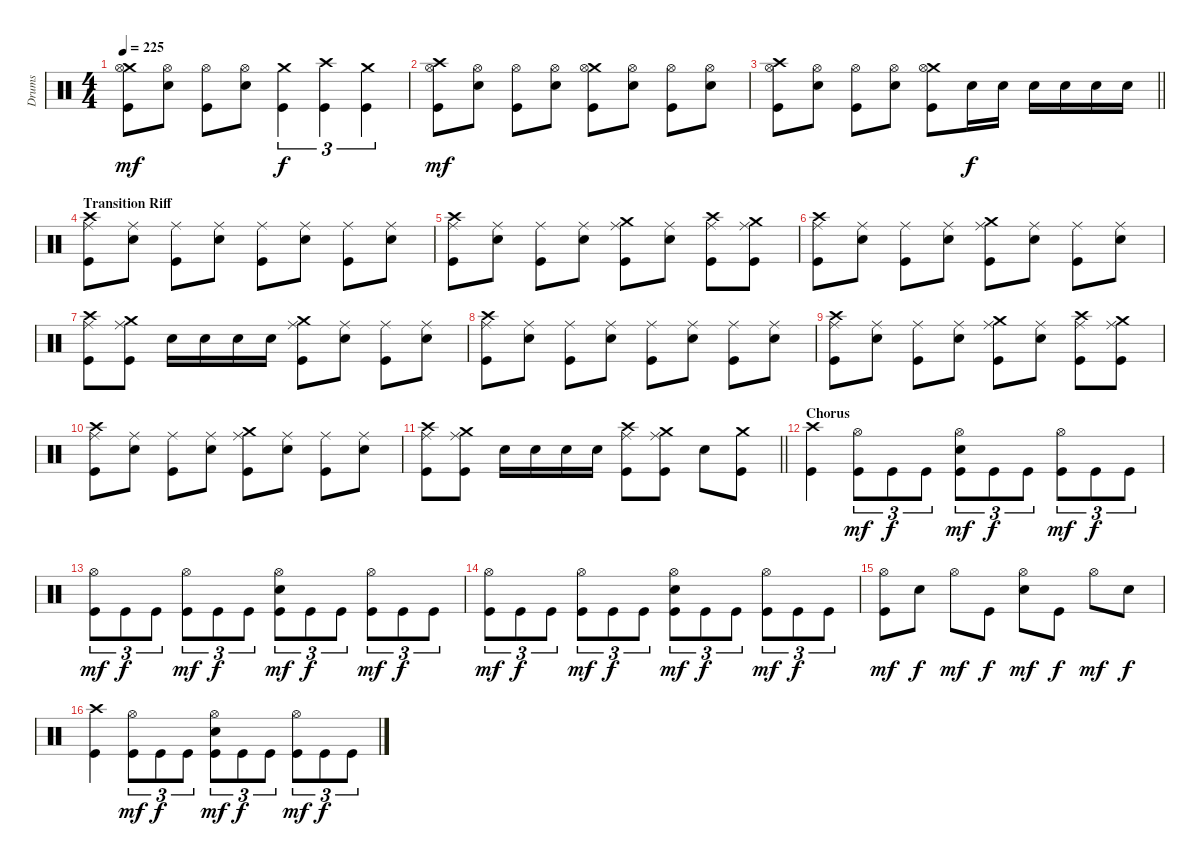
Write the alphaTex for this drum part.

\track ("Drums" "Drums") {instrument percussion}
\staff {score}
\articulation defaults
\ts (4 4)
\tempo 225
\clef neutral
\ks c
("Crash medium (hit)" "Hi-Hat (open)" "Kick (hit)").8{dy mf} ("Hi-Hat (open)" "Electric Snare (hit)").8 ("Hi-Hat (open)" "Kick (hit)").8 ("Hi-Hat (open)" "Electric Snare (hit)").8 ("Crash medium (hit)" "Kick (hit)").4{tu (3 2) dy f} ("Crash high (hit)" "Kick (hit)").4{tu (3 2)} ("Crash medium (hit)" "Kick (hit)").4{tu (3 2)} |
("Crash high (hit)" "Hi-Hat (open)" "Kick (hit)").8{dy mf} ("Hi-Hat (open)" "Electric Snare (hit)").8 ("Hi-Hat (open)" "Kick (hit)").8 ("Hi-Hat (open)" "Electric Snare (hit)").8 ("Crash medium (hit)" "Hi-Hat (open)" "Kick (hit)").8 ("Hi-Hat (open)" "Electric Snare (hit)").8 ("Hi-Hat (open)" "Kick (hit)").8 ("Hi-Hat (open)" "Electric Snare (hit)").8 |
\barLineRight lightlight
("Crash high (hit)" "Hi-Hat (open)" "Kick (hit)").8 ("Hi-Hat (open)" "Electric Snare (hit)").8 ("Hi-Hat (open)" "Kick (hit)").8 ("Hi-Hat (open)" "Electric Snare (hit)").8 ("Crash medium (hit)" "Hi-Hat (open)" "Kick (hit)").8 "Electric Snare (hit)".16{dy f} "Electric Snare (hit)".16 "Electric Snare (hit)".16 "Electric Snare (hit)".16 "Electric Snare (hit)".16 "Electric Snare (hit)".16 |
\section ("" "Transition Riff")
("Crash high (hit)" "Ride (middle)" "Kick (hit)").8 ("Ride (middle)" "Electric Snare (hit)").8 ("Ride (middle)" "Kick (hit)").8 ("Ride (middle)" "Electric Snare (hit)").8 ("Ride (middle)" "Kick (hit)").8 ("Ride (middle)" "Electric Snare (hit)").8 ("Ride (middle)" "Kick (hit)").8 ("Ride (middle)" "Electric Snare (hit)").8 |
("Crash high (hit)" "Ride (middle)" "Kick (hit)").8 ("Ride (middle)" "Electric Snare (hit)").8 ("Ride (middle)" "Kick (hit)").8 ("Ride (middle)" "Electric Snare (hit)").8 ("Crash medium (hit)" "Ride (middle)" "Kick (hit)").8 ("Ride (middle)" "Electric Snare (hit)").8 ("Crash high (hit)" "Ride (middle)" "Kick (hit)").8 ("Crash medium (hit)" "Ride (middle)" "Kick (hit)").8 |
("Crash high (hit)" "Ride (middle)" "Kick (hit)").8 ("Ride (middle)" "Electric Snare (hit)").8 ("Ride (middle)" "Kick (hit)").8 ("Ride (middle)" "Electric Snare (hit)").8 ("Crash medium (hit)" "Ride (middle)" "Kick (hit)").8 ("Ride (middle)" "Electric Snare (hit)").8 ("Ride (middle)" "Kick (hit)").8 ("Ride (middle)" "Electric Snare (hit)").8 |
("Crash high (hit)" "Ride (middle)" "Kick (hit)").8 ("Crash medium (hit)" "Ride (middle)" "Kick (hit)").8 "Electric Snare (hit)".16 "Electric Snare (hit)".16 "Electric Snare (hit)".16 "Electric Snare (hit)".16 ("Crash medium (hit)" "Ride (middle)" "Kick (hit)").8 ("Ride (middle)" "Electric Snare (hit)").8 ("Ride (middle)" "Kick (hit)").8 ("Ride (middle)" "Electric Snare (hit)").8 |
("Crash high (hit)" "Ride (middle)" "Kick (hit)").8 ("Ride (middle)" "Electric Snare (hit)").8 ("Ride (middle)" "Kick (hit)").8 ("Ride (middle)" "Electric Snare (hit)").8 ("Ride (middle)" "Kick (hit)").8 ("Ride (middle)" "Electric Snare (hit)").8 ("Ride (middle)" "Kick (hit)").8 ("Ride (middle)" "Electric Snare (hit)").8 |
("Crash high (hit)" "Ride (middle)" "Kick (hit)").8 ("Ride (middle)" "Electric Snare (hit)").8 ("Ride (middle)" "Kick (hit)").8 ("Ride (middle)" "Electric Snare (hit)").8 ("Crash medium (hit)" "Ride (middle)" "Kick (hit)").8 ("Ride (middle)" "Electric Snare (hit)").8 ("Crash high (hit)" "Ride (middle)" "Kick (hit)").8 ("Crash medium (hit)" "Ride (middle)" "Kick (hit)").8 |
("Crash high (hit)" "Ride (middle)" "Kick (hit)").8 ("Ride (middle)" "Electric Snare (hit)").8 ("Ride (middle)" "Kick (hit)").8 ("Ride (middle)" "Electric Snare (hit)").8 ("Crash medium (hit)" "Ride (middle)" "Kick (hit)").8 ("Ride (middle)" "Electric Snare (hit)").8 ("Ride (middle)" "Kick (hit)").8 ("Ride (middle)" "Electric Snare (hit)").8 |
\barLineRight lightlight
("Crash high (hit)" "Ride (middle)" "Kick (hit)").8 ("Crash medium (hit)" "Ride (middle)" "Kick (hit)").8 "Electric Snare (hit)".16 "Electric Snare (hit)".16 "Electric Snare (hit)".16 "Electric Snare (hit)".16 ("Crash high (hit)" "Ride (middle)" "Kick (hit)").8 ("Crash medium (hit)" "Ride (middle)" "Kick (hit)").8 "Electric Snare (hit)".8 ("Crash medium (hit)" "Kick (hit)").8 |
\section ("" "Chorus")
("Crash high (hit)" "Kick (hit)").4 ("Hi-Hat (open)" "Kick (hit)").8{tu (3 2) dy mf} "Kick (hit)".8{tu (3 2) dy f} "Kick (hit)".8{tu (3 2)} ("Hi-Hat (open)" "Electric Snare (hit)" "Kick (hit)").8{tu (3 2) dy mf} "Kick (hit)".8{tu (3 2) dy f} "Kick (hit)".8{tu (3 2)} ("Hi-Hat (open)" "Kick (hit)").8{tu (3 2) dy mf} "Kick (hit)".8{tu (3 2) dy f} "Kick (hit)".8{tu (3 2)} |
("Hi-Hat (open)" "Kick (hit)").8{tu (3 2) dy mf} "Kick (hit)".8{tu (3 2) dy f} "Kick (hit)".8{tu (3 2)} ("Hi-Hat (open)" "Kick (hit)").8{tu (3 2) dy mf} "Kick (hit)".8{tu (3 2) dy f} "Kick (hit)".8{tu (3 2)} ("Hi-Hat (open)" "Electric Snare (hit)" "Kick (hit)").8{tu (3 2) dy mf} "Kick (hit)".8{tu (3 2) dy f} "Kick (hit)".8{tu (3 2)} ("Hi-Hat (open)" "Kick (hit)").8{tu (3 2) dy mf} "Kick (hit)".8{tu (3 2) dy f} "Kick (hit)".8{tu (3 2)} |
("Hi-Hat (open)" "Kick (hit)").8{tu (3 2) dy mf} "Kick (hit)".8{tu (3 2) dy f} "Kick (hit)".8{tu (3 2)} ("Hi-Hat (open)" "Kick (hit)").8{tu (3 2) dy mf} "Kick (hit)".8{tu (3 2) dy f} "Kick (hit)".8{tu (3 2)} ("Hi-Hat (open)" "Electric Snare (hit)" "Kick (hit)").8{tu (3 2) dy mf} "Kick (hit)".8{tu (3 2) dy f} "Kick (hit)".8{tu (3 2)} ("Hi-Hat (open)" "Kick (hit)").8{tu (3 2) dy mf} "Kick (hit)".8{tu (3 2) dy f} "Kick (hit)".8{tu (3 2)} |
("Hi-Hat (open)" "Kick (hit)").8{dy mf} "Electric Snare (hit)".8{dy f} "Hi-Hat (open)".8{dy mf} "Kick (hit)".8{dy f} ("Hi-Hat (open)" "Electric Snare (hit)").8{dy mf} "Kick (hit)".8{dy f} "Hi-Hat (open)".8{dy mf} "Electric Snare (hit)".8{dy f} |
("Crash high (hit)" "Kick (hit)").4 ("Hi-Hat (open)" "Kick (hit)").8{tu (3 2) dy mf} "Kick (hit)".8{tu (3 2) dy f} "Kick (hit)".8{tu (3 2)} ("Hi-Hat (open)" "Electric Snare (hit)" "Kick (hit)").8{tu (3 2) dy mf} "Kick (hit)".8{tu (3 2) dy f} "Kick (hit)".8{tu (3 2)} ("Hi-Hat (open)" "Kick (hit)").8{tu (3 2) dy mf} "Kick (hit)".8{tu (3 2) dy f} "Kick (hit)".8{tu (3 2)}
